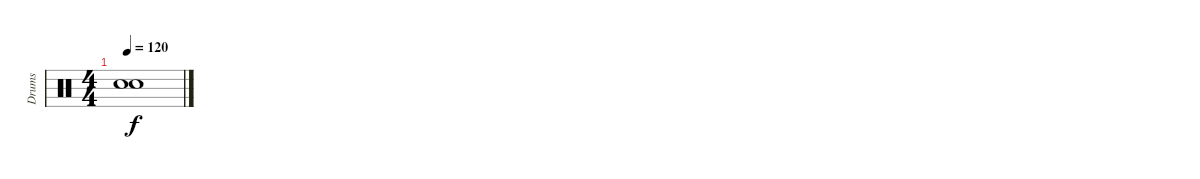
\track ("Drums" "Drums") {instrument percussion}
\staff {score}
\articulation defaults
\ts (4 4)
\tempo 120
\clef neutral
\ks c
("Snare (hit)"{t} "Snare (hit)"{t}).1{dy f}
